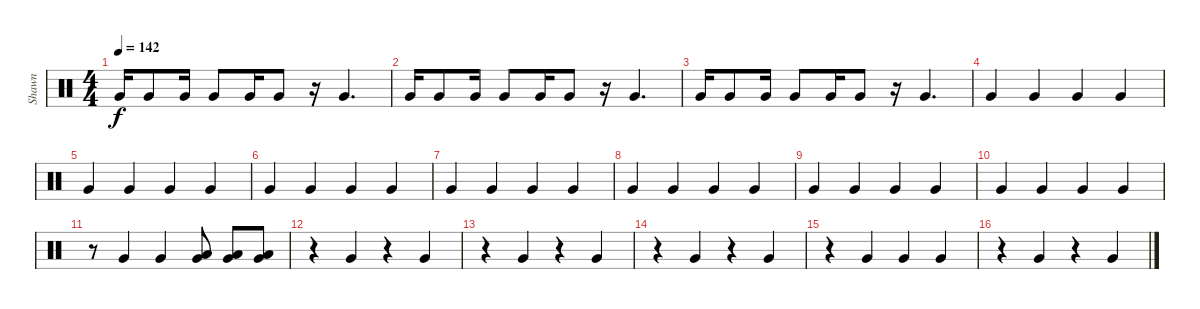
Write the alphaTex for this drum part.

\track ("Shawn" "Shawn") {instrument percussion}
\staff {score}
\articulation defaults
\ts (4 4)
\tempo 142
\clef neutral
\ks c "Very Low Tom (hit)".16{dy f} "Very Low Tom (hit)".8 "Very Low Tom (hit)".16 "Very Low Tom (hit)".8 "Very Low Tom (hit)".16 "Very Low Tom (hit)".8
r.16 "Very Low Tom (hit)".4{d} |
"Very Low Tom (hit)".16 "Very Low Tom (hit)".8 "Very Low Tom (hit)".16 "Very Low Tom (hit)".8 "Very Low Tom (hit)".16 "Very Low Tom (hit)".8 r.16 "Very Low Tom (hit)".4{d} |
"Very Low Tom (hit)".16 "Very Low Tom (hit)".8 "Very Low Tom (hit)".16 "Very Low Tom (hit)".8 "Very Low Tom (hit)".16 "Very Low Tom (hit)".8 r.16 "Very Low Tom (hit)".4{d} |
"Very Low Tom (hit)".4 "Very Low Tom (hit)".4 "Very Low Tom (hit)".4 "Very Low Tom (hit)".4 |
"Very Low Tom (hit)".4 "Very Low Tom (hit)".4 "Very Low Tom (hit)".4 "Very Low Tom (hit)".4 |
"Very Low Tom (hit)".4 "Very Low Tom (hit)".4 "Very Low Tom (hit)".4 "Very Low Tom (hit)".4 |
"Very Low Tom (hit)".4 "Very Low Tom (hit)".4 "Very Low Tom (hit)".4 "Very Low Tom (hit)".4 |
"Very Low Tom (hit)".4 "Very Low Tom (hit)".4 "Very Low Tom (hit)".4 "Very Low Tom (hit)".4 |
"Very Low Tom (hit)".4 "Very Low Tom (hit)".4 "Very Low Tom (hit)".4 "Very Low Tom (hit)".4 |
"Very Low Tom (hit)".4 "Very Low Tom (hit)".4 "Very Low Tom (hit)".4 "Very Low Tom (hit)".4 |
r.8 "Very Low Tom (hit)".4 "Very Low Tom (hit)".4 ("Very Low Tom (hit)" "Low Floor Tom (hit)").8 ("Very Low Tom (hit)" "Low Floor Tom (hit)").8 ("Very Low Tom (hit)" "Low Floor Tom (hit)").8 |
r.4 "Very Low Tom (hit)".4 r.4 "Very Low Tom (hit)".4 |
r.4 "Very Low Tom (hit)".4 r.4 "Very Low Tom (hit)".4 |
r.4 "Very Low Tom (hit)".4 r.4 "Very Low Tom (hit)".4 |
r.4 "Very Low Tom (hit)".4 "Very Low Tom (hit)".4 "Very Low Tom (hit)".4 |
r.4 "Very Low Tom (hit)".4 r.4 "Very Low Tom (hit)".4
